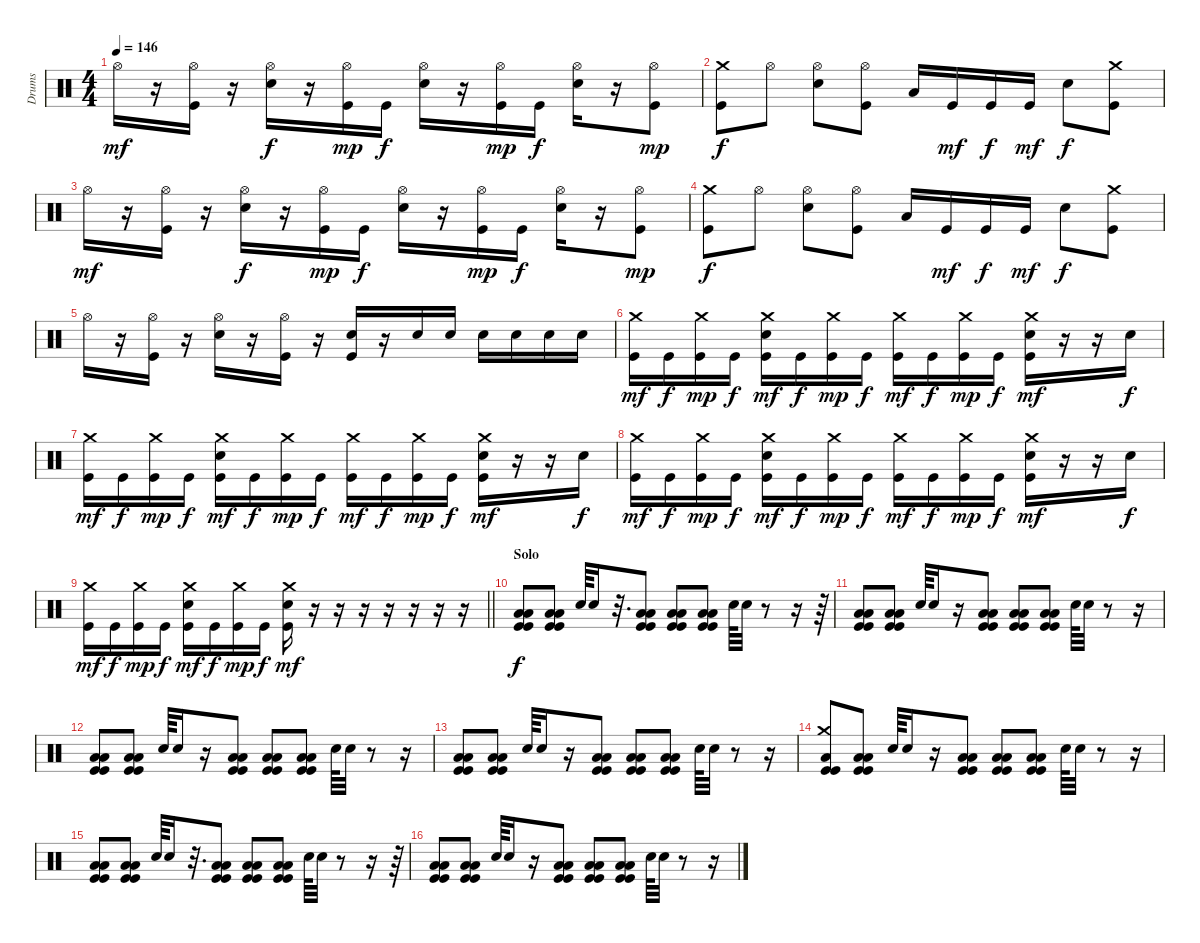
\track ("Drums" "Drums") {instrument percussion}
\staff {score}
\articulation defaults
\ts (4 4)
\tempo 146
\clef neutral
\ks c "Hi-Hat (open)".16{dy mf}
r.16 ("Hi-Hat (open)" "Kick (hit)").16 r.16 ("Hi-Hat (open)" "Snare (hit) 2").16{dy f} r.16 ("Hi-Hat (open)" "Kick (hit)").16{dy mp} "Kick (hit)".16{dy f} ("Hi-Hat (open)" "Snare (hit) 2").16 r.16 ("Hi-Hat (open)" "Kick (hit)").16{dy mp} "Kick (hit)".16{dy f} ("Hi-Hat (open)" "Snare (hit) 2").16 r.16 ("Hi-Hat (open)" "Kick (hit)").8{dy mp} |
("Crash medium (hit)" "Kick (hit)").8{dy f} "Hi-Hat (open)".8 ("Hi-Hat (open)" "Snare (hit) 2").8 ("Hi-Hat (open)" "Kick (hit)").8 "Low Floor Tom (hit)".16 "Kick (hit)".16{dy mf} "Kick (hit)".16{dy f} "Kick (hit)".16{dy mf} "Snare (hit) 2".8{dy f} ("Crash medium (hit)" "Kick (hit)").8 |
"Hi-Hat (open)".16{dy mf} r.16 ("Hi-Hat (open)" "Kick (hit)").16 r.16 ("Hi-Hat (open)" "Snare (hit) 2").16{dy f} r.16 ("Hi-Hat (open)" "Kick (hit)").16{dy mp} "Kick (hit)".16{dy f} ("Hi-Hat (open)" "Snare (hit) 2").16 r.16 ("Hi-Hat (open)" "Kick (hit)").16{dy mp} "Kick (hit)".16{dy f} ("Hi-Hat (open)" "Snare (hit) 2").16 r.16 ("Hi-Hat (open)" "Kick (hit)").8{dy mp} |
("Crash medium (hit)" "Kick (hit)").8{dy f} "Hi-Hat (open)".8 ("Hi-Hat (open)" "Snare (hit) 2").8 ("Hi-Hat (open)" "Kick (hit)").8 "Low Floor Tom (hit)".16 "Kick (hit)".16{dy mf} "Kick (hit)".16{dy f} "Kick (hit)".16{dy mf} "Snare (hit) 2".8{dy f} ("Crash medium (hit)" "Kick (hit)").8 |
"Hi-Hat (open)".16 r.16 ("Hi-Hat (open)" "Kick (hit)").16 r.16 ("Hi-Hat (open)" "Snare (hit) 2").16 r.16 ("Hi-Hat (open)" "Kick (hit)").16 r.16 ("Snare (hit) 2" "Kick (hit)").16 r.16 "Snare (hit) 2".16 "Snare (hit) 2".16 "Snare (hit) 2".16 "Snare (hit) 2".16 "Snare (hit) 2".16 "Snare (hit) 2".16 |
("Crash medium (hit)" "Kick (hit)").16{dy mf} "Kick (hit)".16{dy f} ("Crash medium (hit)" "Kick (hit)").16{dy mp} "Kick (hit)".16{dy f} ("Crash medium (hit)" "Snare (hit) 2" "Kick (hit)").16{dy mf} "Kick (hit)".16{dy f} ("Crash medium (hit)" "Kick (hit)").16{dy mp} "Kick (hit)".16{dy f} ("Crash medium (hit)" "Kick (hit)").16{dy mf} "Kick (hit)".16{dy f} ("Crash medium (hit)" "Kick (hit)").16{dy mp} "Kick (hit)".16{dy f} ("Crash medium (hit)" "Snare (hit) 2" "Kick (hit)").16{dy mf} r.16 r.16 "Snare (hit) 2".16{dy f} |
("Crash medium (hit)" "Kick (hit)").16{dy mf} "Kick (hit)".16{dy f} ("Crash medium (hit)" "Kick (hit)").16{dy mp} "Kick (hit)".16{dy f} ("Crash medium (hit)" "Snare (hit) 2" "Kick (hit)").16{dy mf} "Kick (hit)".16{dy f} ("Crash medium (hit)" "Kick (hit)").16{dy mp} "Kick (hit)".16{dy f} ("Crash medium (hit)" "Kick (hit)").16{dy mf} "Kick (hit)".16{dy f} ("Crash medium (hit)" "Kick (hit)").16{dy mp} "Kick (hit)".16{dy f} ("Crash medium (hit)" "Snare (hit) 2" "Kick (hit)").16{dy mf} r.16 r.16 "Snare (hit) 2".16{dy f} |
("Crash medium (hit)" "Kick (hit)").16{dy mf} "Kick (hit)".16{dy f} ("Crash medium (hit)" "Kick (hit)").16{dy mp} "Kick (hit)".16{dy f} ("Crash medium (hit)" "Snare (hit) 2" "Kick (hit)").16{dy mf} "Kick (hit)".16{dy f} ("Crash medium (hit)" "Kick (hit)").16{dy mp} "Kick (hit)".16{dy f} ("Crash medium (hit)" "Kick (hit)").16{dy mf} "Kick (hit)".16{dy f} ("Crash medium (hit)" "Kick (hit)").16{dy mp} "Kick (hit)".16{dy f} ("Crash medium (hit)" "Snare (hit) 2" "Kick (hit)").16{dy mf} r.16 r.16 "Snare (hit) 2".16{dy f} |
\barLineRight lightlight
("Crash medium (hit)" "Kick (hit)").16{dy mf} "Kick (hit)".16{dy f} ("Crash medium (hit)" "Kick (hit)").16{dy mp} "Kick (hit)".16{dy f} ("Crash medium (hit)" "Snare (hit) 2" "Kick (hit)").16{dy mf} "Kick (hit)".16{dy f} ("Crash medium (hit)" "Kick (hit)").16{dy mp} "Kick (hit)".16{dy f} ("Crash medium (hit)" "Snare (hit) 2" "Kick (hit)").16{dy mf} r.16 r.16 r.16 r.16 r.16 r.16 r.16 |
\section ("" "Solo")
("Low Tom (hit)" "Low Floor Tom (hit)" "Kick (hit)" "Kick (hit)").8{dy f} ("Low Tom (hit)" "Low Floor Tom (hit)" "Kick (hit)" "Kick (hit)").8 "Snare (hit) 2".64 "Snare (hit) 2".16 r.32{d} ("Low Tom (hit)" "Low Floor Tom (hit)" "Kick (hit)" "Kick (hit)").8 ("Low Tom (hit)" "Low Floor Tom (hit)" "Kick (hit)" "Kick (hit)").8 ("Low Tom (hit)" "Low Floor Tom (hit)" "Kick (hit)" "Kick (hit)").8 "Snare (hit) 2".64 "Snare (hit) 2".32 r.8 r.16 r.64 |
("Low Tom (hit)" "Low Floor Tom (hit)" "Kick (hit)" "Kick (hit)").8 ("Low Tom (hit)" "Low Floor Tom (hit)" "Kick (hit)" "Kick (hit)").8 "Snare (hit) 2".64 "Snare (hit) 2".16 r.16 ("Low Tom (hit)" "Low Floor Tom (hit)" "Kick (hit)" "Kick (hit)").8 ("Low Tom (hit)" "Low Floor Tom (hit)" "Kick (hit)" "Kick (hit)").8 ("Low Tom (hit)" "Low Floor Tom (hit)" "Kick (hit)" "Kick (hit)").8 "Snare (hit) 2".64 "Snare (hit) 2".32 r.8 r.16 |
("Low Tom (hit)" "Low Floor Tom (hit)" "Kick (hit)" "Kick (hit)").8 ("Low Tom (hit)" "Low Floor Tom (hit)" "Kick (hit)" "Kick (hit)").8 "Snare (hit) 2".64 "Snare (hit) 2".16 r.16 ("Low Tom (hit)" "Low Floor Tom (hit)" "Kick (hit)" "Kick (hit)").8 ("Low Tom (hit)" "Low Floor Tom (hit)" "Kick (hit)" "Kick (hit)").8 ("Low Tom (hit)" "Low Floor Tom (hit)" "Kick (hit)" "Kick (hit)").8 "Snare (hit) 2".64 "Snare (hit) 2".32 r.8 r.16 |
("Low Tom (hit)" "Low Floor Tom (hit)" "Kick (hit)" "Kick (hit)").8 ("Low Tom (hit)" "Low Floor Tom (hit)" "Kick (hit)" "Kick (hit)").8 "Snare (hit) 2".64 "Snare (hit) 2".16 r.16 ("Low Tom (hit)" "Low Floor Tom (hit)" "Kick (hit)" "Kick (hit)").8 ("Low Tom (hit)" "Low Floor Tom (hit)" "Kick (hit)" "Kick (hit)").8 ("Low Tom (hit)" "Low Floor Tom (hit)" "Kick (hit)" "Kick (hit)").8 "Snare (hit) 2".64 "Snare (hit) 2".32 r.8 r.16 |
("Crash medium (hit)" "Low Tom (hit)" "Kick (hit)" "Kick (hit)").8 ("Low Tom (hit)" "Low Floor Tom (hit)" "Kick (hit)" "Kick (hit)").8 "Snare (hit) 2".64 "Snare (hit) 2".16 r.16 ("Low Tom (hit)" "Low Floor Tom (hit)" "Kick (hit)" "Kick (hit)").8 ("Low Tom (hit)" "Low Floor Tom (hit)" "Kick (hit)" "Kick (hit)").8 ("Low Tom (hit)" "Low Floor Tom (hit)" "Kick (hit)" "Kick (hit)").8 "Snare (hit) 2".64 "Snare (hit) 2".32 r.8 r.16 |
("Low Tom (hit)" "Low Floor Tom (hit)" "Kick (hit)" "Kick (hit)").8 ("Low Tom (hit)" "Low Floor Tom (hit)" "Kick (hit)" "Kick (hit)").8 "Snare (hit) 2".64 "Snare (hit) 2".16 r.32{d} ("Low Tom (hit)" "Low Floor Tom (hit)" "Kick (hit)" "Kick (hit)").8 ("Low Tom (hit)" "Low Floor Tom (hit)" "Kick (hit)" "Kick (hit)").8 ("Low Tom (hit)" "Low Floor Tom (hit)" "Kick (hit)" "Kick (hit)").8 "Snare (hit) 2".64 "Snare (hit) 2".32 r.8 r.16 r.64 |
("Low Tom (hit)" "Low Floor Tom (hit)" "Kick (hit)" "Kick (hit)").8 ("Low Tom (hit)" "Low Floor Tom (hit)" "Kick (hit)" "Kick (hit)").8 "Snare (hit) 2".64 "Snare (hit) 2".16 r.16 ("Low Tom (hit)" "Low Floor Tom (hit)" "Kick (hit)" "Kick (hit)").8 ("Low Tom (hit)" "Low Floor Tom (hit)" "Kick (hit)" "Kick (hit)").8 ("Low Tom (hit)" "Low Floor Tom (hit)" "Kick (hit)" "Kick (hit)").8 "Snare (hit) 2".64 "Snare (hit) 2".32 r.8 r.16
